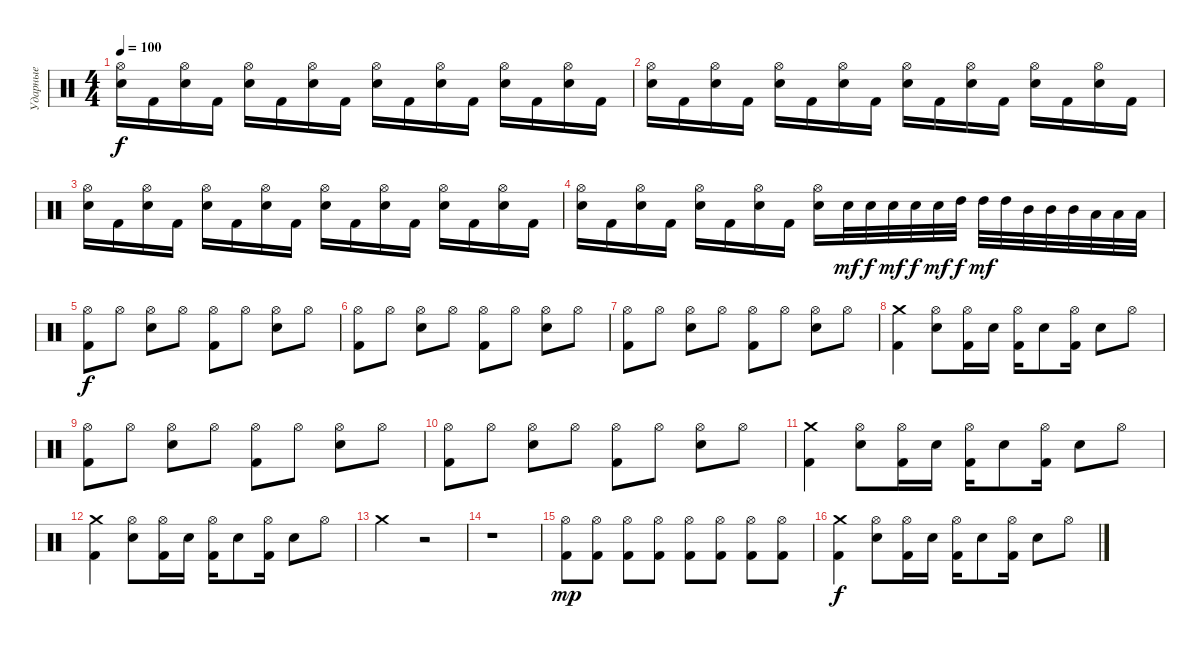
\track ("Ударные" "Ударные") {instrument percussion}
\staff {score}
\articulation defaults
\ts (4 4)
\tempo 100
\clef neutral
\ks c
("Hi-Hat (open)" "Electric Snare (hit)").16{dy f} "Kick (hit) 2".16 ("Hi-Hat (open)" "Electric Snare (hit)").16 "Kick (hit) 2".16 ("Hi-Hat (open)" "Electric Snare (hit)").16 "Kick (hit) 2".16 ("Hi-Hat (open)" "Electric Snare (hit)").16 "Kick (hit) 2".16 ("Hi-Hat (open)" "Electric Snare (hit)").16 "Kick (hit) 2".16 ("Hi-Hat (open)" "Electric Snare (hit)").16 "Kick (hit) 2".16 ("Hi-Hat (open)" "Electric Snare (hit)").16 "Kick (hit) 2".16 ("Hi-Hat (open)" "Electric Snare (hit)").16 "Kick (hit) 2".16 |
("Hi-Hat (open)" "Electric Snare (hit)").16 "Kick (hit) 2".16 ("Hi-Hat (open)" "Electric Snare (hit)").16 "Kick (hit) 2".16 ("Hi-Hat (open)" "Electric Snare (hit)").16 "Kick (hit) 2".16 ("Hi-Hat (open)" "Electric Snare (hit)").16 "Kick (hit) 2".16 ("Hi-Hat (open)" "Electric Snare (hit)").16 "Kick (hit) 2".16 ("Hi-Hat (open)" "Electric Snare (hit)").16 "Kick (hit) 2".16 ("Hi-Hat (open)" "Electric Snare (hit)").16 "Kick (hit) 2".16 ("Hi-Hat (open)" "Electric Snare (hit)").16 "Kick (hit) 2".16 |
("Hi-Hat (open)" "Electric Snare (hit)").16 "Kick (hit) 2".16 ("Hi-Hat (open)" "Electric Snare (hit)").16 "Kick (hit) 2".16 ("Hi-Hat (open)" "Electric Snare (hit)").16 "Kick (hit) 2".16 ("Hi-Hat (open)" "Electric Snare (hit)").16 "Kick (hit) 2".16 ("Hi-Hat (open)" "Electric Snare (hit)").16 "Kick (hit) 2".16 ("Hi-Hat (open)" "Electric Snare (hit)").16 "Kick (hit) 2".16 ("Hi-Hat (open)" "Electric Snare (hit)").16 "Kick (hit) 2".16 ("Hi-Hat (open)" "Electric Snare (hit)").16 "Kick (hit) 2".16 |
("Hi-Hat (open)" "Electric Snare (hit)").16 "Kick (hit) 2".16 ("Hi-Hat (open)" "Electric Snare (hit)").16 "Kick (hit) 2".16 ("Hi-Hat (open)" "Electric Snare (hit)").16 "Kick (hit) 2".16 ("Hi-Hat (open)" "Electric Snare (hit)").16 "Kick (hit) 2".16 ("Hi-Hat (open)" "Electric Snare (hit)").16 "Electric Snare (hit)".32{dy mf} "Electric Snare (hit)".32{dy f} "Electric Snare (hit)".32{dy mf} "Electric Snare (hit)".32{dy f} "Electric Snare (hit)".32{dy mf} "High Tom (hit)".32{dy f} "High Tom (hit)".32{dy mf} "High Tom (hit)".32 "Mid Tom (hit)".32 "Mid Tom (hit)".32 "Mid Tom (hit)".32 "Low Tom (hit)".32 "Low Tom (hit)".32 "Low Tom (hit)".32 |
("Hi-Hat (open)" "Kick (hit) 2").8{dy f} "Hi-Hat (open)".8 ("Hi-Hat (open)" "Electric Snare (hit)").8 "Hi-Hat (open)".8 ("Hi-Hat (open)" "Kick (hit) 2").8 "Hi-Hat (open)".8 ("Hi-Hat (open)" "Electric Snare (hit)").8 "Hi-Hat (open)".8 |
("Hi-Hat (open)" "Kick (hit) 2").8 "Hi-Hat (open)".8 ("Hi-Hat (open)" "Electric Snare (hit)").8 "Hi-Hat (open)".8 ("Hi-Hat (open)" "Kick (hit) 2").8 "Hi-Hat (open)".8 ("Hi-Hat (open)" "Electric Snare (hit)").8 "Hi-Hat (open)".8 |
("Hi-Hat (open)" "Kick (hit) 2").8 "Hi-Hat (open)".8 ("Hi-Hat (open)" "Electric Snare (hit)").8 "Hi-Hat (open)".8 ("Hi-Hat (open)" "Kick (hit) 2").8 "Hi-Hat (open)".8 ("Hi-Hat (open)" "Electric Snare (hit)").8 "Hi-Hat (open)".8 |
("Crash medium (hit)" "Kick (hit) 2").4 ("Hi-Hat (open)" "Electric Snare (hit)").8 ("Hi-Hat (open)" "Kick (hit) 2").16 "Electric Snare (hit)".16 ("Hi-Hat (open)" "Kick (hit) 2").16 "Electric Snare (hit)".8 ("Hi-Hat (open)" "Kick (hit) 2").16 "Electric Snare (hit)".8 "Hi-Hat (open)".8 |
("Hi-Hat (open)" "Kick (hit) 2").8 "Hi-Hat (open)".8 ("Hi-Hat (open)" "Electric Snare (hit)").8 "Hi-Hat (open)".8 ("Hi-Hat (open)" "Kick (hit) 2").8 "Hi-Hat (open)".8 ("Hi-Hat (open)" "Electric Snare (hit)").8 "Hi-Hat (open)".8 |
("Hi-Hat (open)" "Kick (hit) 2").8 "Hi-Hat (open)".8 ("Hi-Hat (open)" "Electric Snare (hit)").8 "Hi-Hat (open)".8 ("Hi-Hat (open)" "Kick (hit) 2").8 "Hi-Hat (open)".8 ("Hi-Hat (open)" "Electric Snare (hit)").8 "Hi-Hat (open)".8 |
("Crash medium (hit)" "Kick (hit) 2").4 ("Hi-Hat (open)" "Electric Snare (hit)").8 ("Hi-Hat (open)" "Kick (hit) 2").16 "Electric Snare (hit)".16 ("Hi-Hat (open)" "Kick (hit) 2").16 "Electric Snare (hit)".8 ("Hi-Hat (open)" "Kick (hit) 2").16 "Electric Snare (hit)".8 "Hi-Hat (open)".8 |
("Crash medium (hit)" "Kick (hit) 2").4 ("Hi-Hat (open)" "Electric Snare (hit)").8 ("Hi-Hat (open)" "Kick (hit) 2").16 "Electric Snare (hit)".16 ("Hi-Hat (open)" "Kick (hit) 2").16 "Electric Snare (hit)".8 ("Hi-Hat (open)" "Kick (hit) 2").16 "Electric Snare (hit)".8 "Hi-Hat (open)".8 |
"Crash medium (hit)".2 r.2 |
r.1 |
("Kick (hit) 2" "Hi-Hat (open)").8{dy mp} ("Kick (hit) 2" "Hi-Hat (open)").8 ("Kick (hit) 2" "Hi-Hat (open)").8 ("Kick (hit) 2" "Hi-Hat (open)").8 ("Kick (hit) 2" "Hi-Hat (open)").8 ("Kick (hit) 2" "Hi-Hat (open)").8 ("Kick (hit) 2" "Hi-Hat (open)").8 ("Kick (hit) 2" "Hi-Hat (open)").8 |
("Crash medium (hit)" "Kick (hit) 2").4{dy f} ("Hi-Hat (open)" "Electric Snare (hit)").8 ("Hi-Hat (open)" "Kick (hit) 2").16 "Electric Snare (hit)".16 ("Hi-Hat (open)" "Kick (hit) 2").16 "Electric Snare (hit)".8 ("Hi-Hat (open)" "Kick (hit) 2").16 "Electric Snare (hit)".8 "Hi-Hat (open)".8
